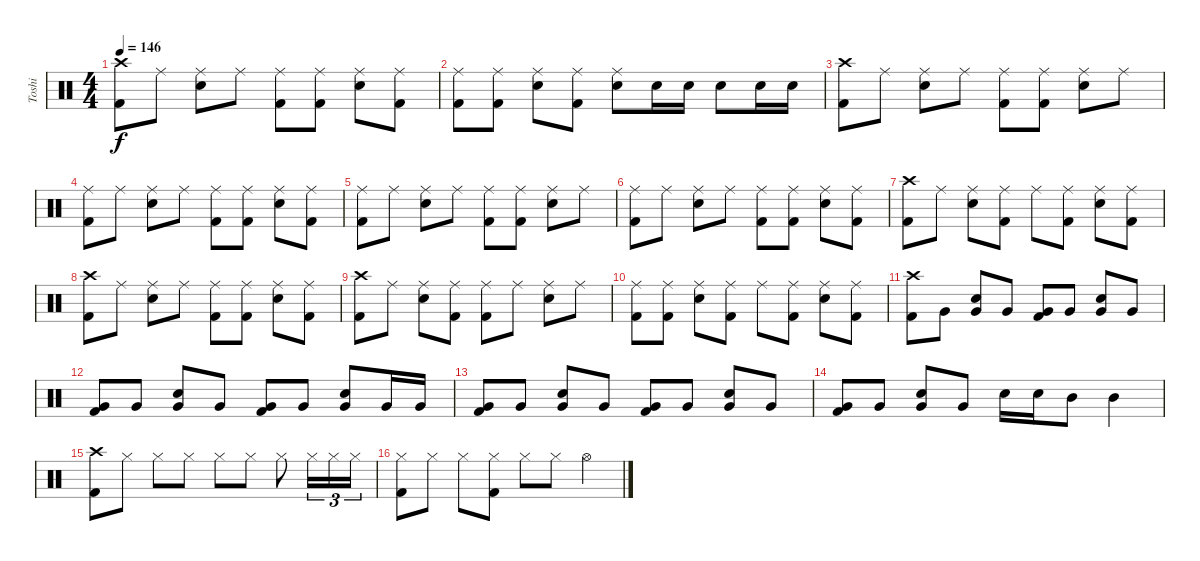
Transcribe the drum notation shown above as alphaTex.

\track ("Toshi" "Toshi") {instrument percussion}
\staff {score}
\articulation defaults
\ts (4 4)
\tempo 146
\clef neutral
\ks c
("Crash high (hit)" "Kick (hit) 2").8{dy f} "Ride (middle)".8 ("Ride (middle)" "Electric Snare (hit)").8 "Ride (middle)".8 ("Ride (middle)" "Kick (hit) 2").8 ("Ride (middle)" "Kick (hit) 2").8 ("Ride (middle)" "Electric Snare (hit)").8 ("Ride (middle)" "Kick (hit) 2").8 |
("Ride (middle)" "Kick (hit) 2").8 ("Ride (middle)" "Kick (hit) 2").8 ("Ride (middle)" "Electric Snare (hit)").8 ("Ride (middle)" "Kick (hit) 2").8 ("Ride (middle)" "Electric Snare (hit)").8 "Electric Snare (hit)".16 "Electric Snare (hit)".16 "Electric Snare (hit)".8 "Electric Snare (hit)".16 "Electric Snare (hit)".16 |
("Crash high (hit)" "Kick (hit) 2").8 "Ride (middle)".8 ("Ride (middle)" "Electric Snare (hit)").8 "Ride (middle)".8 ("Ride (middle)" "Kick (hit) 2").8 ("Ride (middle)" "Kick (hit) 2").8 ("Ride (middle)" "Electric Snare (hit)").8 "Ride (middle)".8 |
("Ride (middle)" "Kick (hit) 2").8 "Ride (middle)".8 ("Ride (middle)" "Electric Snare (hit)").8 "Ride (middle)".8 ("Ride (middle)" "Kick (hit) 2").8 ("Ride (middle)" "Kick (hit) 2").8 ("Ride (middle)" "Electric Snare (hit)").8 ("Ride (middle)" "Kick (hit) 2").8 |
("Ride (middle)" "Kick (hit) 2").8 "Ride (middle)".8 ("Ride (middle)" "Electric Snare (hit)").8 "Ride (middle)".8 ("Ride (middle)" "Kick (hit) 2").8 ("Ride (middle)" "Kick (hit) 2").8 ("Ride (middle)" "Electric Snare (hit)").8 "Ride (middle)".8 |
("Ride (middle)" "Kick (hit) 2").8 "Ride (middle)".8 ("Ride (middle)" "Electric Snare (hit)").8 "Ride (middle)".8 ("Ride (middle)" "Kick (hit) 2").8 ("Ride (middle)" "Kick (hit) 2").8 ("Ride (middle)" "Electric Snare (hit)").8 ("Ride (middle)" "Kick (hit) 2").8 |
("Crash high (hit)" "Kick (hit) 2").8 "Ride (middle)".8 ("Ride (middle)" "Electric Snare (hit)").8 ("Ride (middle)" "Kick (hit) 2").8 "Ride (middle)".8 ("Ride (middle)" "Kick (hit) 2").8 ("Ride (middle)" "Electric Snare (hit)").8 ("Ride (middle)" "Kick (hit) 2").8 |
("Crash high (hit)" "Kick (hit) 2").8 "Ride (middle)".8 ("Ride (middle)" "Electric Snare (hit)").8 "Ride (middle)".8 ("Ride (middle)" "Kick (hit) 2").8 ("Ride (middle)" "Kick (hit) 2").8 ("Ride (middle)" "Electric Snare (hit)").8 ("Ride (middle)" "Kick (hit) 2").8 |
("Crash high (hit)" "Kick (hit) 2").8 "Ride (middle)".8 ("Ride (middle)" "Electric Snare (hit)").8 ("Ride (middle)" "Kick (hit) 2").8 ("Ride (middle)" "Kick (hit) 2").8 "Ride (middle)".8 ("Ride (middle)" "Electric Snare (hit)").8 "Ride (middle)".8 |
("Ride (middle)" "Kick (hit) 2").8 ("Ride (middle)" "Kick (hit) 2").8 ("Ride (middle)" "Electric Snare (hit)").8 ("Ride (middle)" "Kick (hit) 2").8 "Ride (middle)".8 ("Ride (middle)" "Kick (hit) 2").8 ("Ride (middle)" "Electric Snare (hit)").8 ("Ride (middle)" "Kick (hit) 2").8 |
("Crash high (hit)" "Kick (hit) 2").8 "Very Low Tom (hit)".8 ("Very Low Tom (hit)" "Electric Snare (hit)").8 "Very Low Tom (hit)".8 ("Very Low Tom (hit)" "Kick (hit) 2").8 "Very Low Tom (hit)".8 ("Very Low Tom (hit)" "Electric Snare (hit)").8 "Very Low Tom (hit)".8 |
("Very Low Tom (hit)" "Kick (hit) 2").8 "Very Low Tom (hit)".8 ("Very Low Tom (hit)" "Electric Snare (hit)").8 "Very Low Tom (hit)".8 ("Very Low Tom (hit)" "Kick (hit) 2").8 "Very Low Tom (hit)".8 ("Very Low Tom (hit)" "Electric Snare (hit)").8 "Very Low Tom (hit)".16 "Very Low Tom (hit)".16 |
("Very Low Tom (hit)" "Kick (hit) 2").8 "Very Low Tom (hit)".8 ("Very Low Tom (hit)" "Electric Snare (hit)").8 "Very Low Tom (hit)".8 ("Very Low Tom (hit)" "Kick (hit) 2").8 "Very Low Tom (hit)".8 ("Very Low Tom (hit)" "Electric Snare (hit)").8 "Very Low Tom (hit)".8 |
("Very Low Tom (hit)" "Kick (hit) 2").8 "Very Low Tom (hit)".8 ("Very Low Tom (hit)" "Electric Snare (hit)").8 "Very Low Tom (hit)".8 "Electric Snare (hit)".16 "Electric Snare (hit)".16 "Mid Tom (hit)".8 "Mid Tom (hit)".4 |
("Crash high (hit)" "Kick (hit) 2").8 "Hi-Hat (closed)".8 "Hi-Hat (closed)".8 "Hi-Hat (closed)".8 "Hi-Hat (closed)".8 "Hi-Hat (closed)".8 "Hi-Hat (closed)".8 "Hi-Hat (closed)".16{tu (3 2)} "Hi-Hat (closed)".16{tu (3 2)} "Hi-Hat (closed)".16{tu (3 2)} |
("Hi-Hat (closed)" "Kick (hit) 2").8 "Hi-Hat (closed)".8 "Hi-Hat (closed)".8 ("Hi-Hat (closed)" "Kick (hit) 2").8 "Hi-Hat (closed)".8 "Hi-Hat (closed)".8 "Hi-Hat (open)".4
